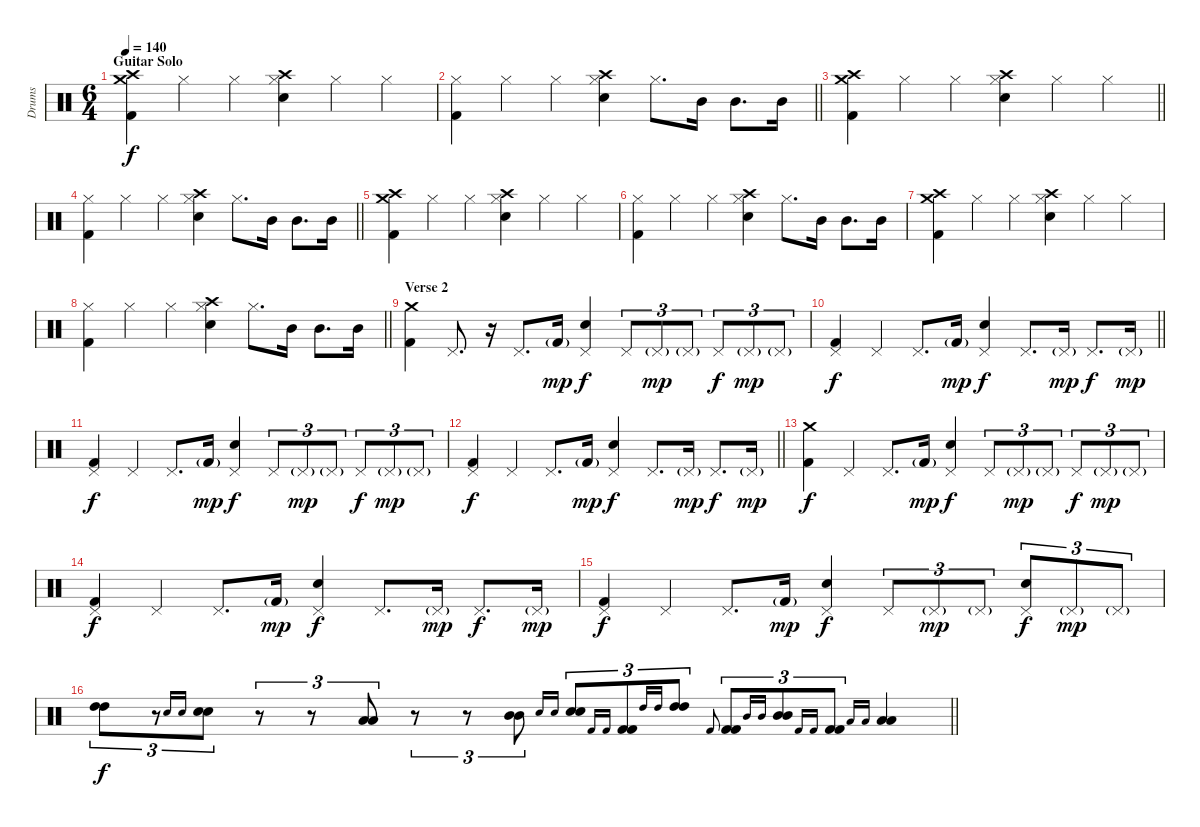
\track ("Drums" "Drums") {instrument percussion}
\staff {score}
\articulation defaults
\ts (6 4)
\section ("" "Guitar Solo")
\tempo 140
\clef neutral
\ks c
("Crash medium (hit)" "Crash high (hit)" "Kick (hit) 2").4{dy f} "Hi-Hat (closed)".4 "Hi-Hat (closed)".4 ("Hi-Hat (closed)" "Crash high (hit)" "Electric Snare (hit)").4 "Hi-Hat (closed)".4 "Hi-Hat (closed)".4 |
\barLineRight lightlight
("Hi-Hat (closed)" "Kick (hit) 2").4 "Hi-Hat (closed)".4 "Hi-Hat (closed)".4 ("Hi-Hat (closed)" "Crash high (hit)" "Electric Snare (hit)").4 "Hi-Hat (closed)".8{d} "Mid Tom (hit)".16 "Mid Tom (hit)".8{d} "Mid Tom (hit)".16 |
\barLineRight lightlight
("Crash medium (hit)" "Crash high (hit)" "Kick (hit) 2").4 "Hi-Hat (closed)".4 "Hi-Hat (closed)".4 ("Hi-Hat (closed)" "Crash high (hit)" "Electric Snare (hit)").4 "Hi-Hat (closed)".4 "Hi-Hat (closed)".4 |
\barLineRight lightlight
("Hi-Hat (closed)" "Kick (hit) 2").4 "Hi-Hat (closed)".4 "Hi-Hat (closed)".4 ("Hi-Hat (closed)" "Crash high (hit)" "Electric Snare (hit)").4 "Hi-Hat (closed)".8{d} "Mid Tom (hit)".16 "Mid Tom (hit)".8{d} "Mid Tom (hit)".16 |
("Crash medium (hit)" "Crash high (hit)" "Kick (hit) 2").4 "Hi-Hat (closed)".4 "Hi-Hat (closed)".4 ("Hi-Hat (closed)" "Crash high (hit)" "Electric Snare (hit)").4 "Hi-Hat (closed)".4 "Hi-Hat (closed)".4 |
("Hi-Hat (closed)" "Kick (hit) 2").4 "Hi-Hat (closed)".4 "Hi-Hat (closed)".4 ("Hi-Hat (closed)" "Crash high (hit)" "Electric Snare (hit)").4 "Hi-Hat (closed)".8{d} "Mid Tom (hit)".16 "Mid Tom (hit)".8{d} "Mid Tom (hit)".16 |
("Crash medium (hit)" "Crash high (hit)" "Kick (hit) 2").4 "Hi-Hat (closed)".4 "Hi-Hat (closed)".4 ("Hi-Hat (closed)" "Crash high (hit)" "Electric Snare (hit)").4 "Hi-Hat (closed)".4 "Hi-Hat (closed)".4 |
\barLineRight lightlight
("Hi-Hat (closed)" "Kick (hit) 2").4 "Hi-Hat (closed)".4 "Hi-Hat (closed)".4 ("Hi-Hat (closed)" "Crash high (hit)" "Electric Snare (hit)").4 "Hi-Hat (closed)".8{d} "Mid Tom (hit)".16 "Mid Tom (hit)".8{d} "Mid Tom (hit)".16 |
\section ("" "Verse 2")
("Crash medium (hit)" "Kick (hit) 2").4{volume 8} "Pedal Hi-Hat (hit)".8{d} r.16 "Pedal Hi-Hat (hit)".8{d} "Kick (hit) 2"{g}.16{dy mp} ("Pedal Hi-Hat (hit)" "Electric Snare (hit)").4{dy f} "Pedal Hi-Hat (hit)".8{tu (3 2)} "Pedal Hi-Hat (hit)"{g}.8{tu (3 2) dy mp} "Pedal Hi-Hat (hit)"{g}.8{tu (3 2)} "Pedal Hi-Hat (hit)".8{tu (3 2) dy f} "Pedal Hi-Hat (hit)"{g}.8{tu (3 2) dy mp} "Pedal Hi-Hat (hit)"{g}.8{tu (3 2)} |
\barLineRight lightlight
("Pedal Hi-Hat (hit)" "Kick (hit) 2").4{dy f} "Pedal Hi-Hat (hit)".4 "Pedal Hi-Hat (hit)".8{d} "Kick (hit) 2"{g}.16{dy mp} ("Pedal Hi-Hat (hit)" "Electric Snare (hit)").4{dy f} "Pedal Hi-Hat (hit)".8{d} "Pedal Hi-Hat (hit)"{g}.16{dy mp} "Pedal Hi-Hat (hit)".8{d dy f} "Pedal Hi-Hat (hit)"{g}.16{dy mp} |
("Pedal Hi-Hat (hit)" "Kick (hit) 2").4{dy f} "Pedal Hi-Hat (hit)".4 "Pedal Hi-Hat (hit)".8{d} "Kick (hit) 2"{g}.16{dy mp} ("Pedal Hi-Hat (hit)" "Electric Snare (hit)").4{dy f} "Pedal Hi-Hat (hit)".8{tu (3 2)} "Pedal Hi-Hat (hit)"{g}.8{tu (3 2) dy mp} "Pedal Hi-Hat (hit)"{g}.8{tu (3 2)} "Pedal Hi-Hat (hit)".8{tu (3 2) dy f} "Pedal Hi-Hat (hit)"{g}.8{tu (3 2) dy mp} "Pedal Hi-Hat (hit)"{g}.8{tu (3 2)} |
\barLineRight lightlight
("Pedal Hi-Hat (hit)" "Kick (hit) 2").4{dy f} "Pedal Hi-Hat (hit)".4 "Pedal Hi-Hat (hit)".8{d} "Kick (hit) 2"{g}.16{dy mp} ("Pedal Hi-Hat (hit)" "Electric Snare (hit)").4{dy f} "Pedal Hi-Hat (hit)".8{d} "Pedal Hi-Hat (hit)"{g}.16{dy mp} "Pedal Hi-Hat (hit)".8{d dy f} "Pedal Hi-Hat (hit)"{g}.16{dy mp} |
("Crash medium (hit)" "Kick (hit) 2").4{dy f} "Pedal Hi-Hat (hit)".4 "Pedal Hi-Hat (hit)".8{d} "Kick (hit) 2"{g}.16{dy mp} ("Pedal Hi-Hat (hit)" "Electric Snare (hit)").4{dy f} "Pedal Hi-Hat (hit)".8{tu (3 2)} "Pedal Hi-Hat (hit)"{g}.8{tu (3 2) dy mp} "Pedal Hi-Hat (hit)"{g}.8{tu (3 2)} "Pedal Hi-Hat (hit)".8{tu (3 2) dy f} "Pedal Hi-Hat (hit)"{g}.8{tu (3 2) dy mp} "Pedal Hi-Hat (hit)"{g}.8{tu (3 2)} |
("Pedal Hi-Hat (hit)" "Kick (hit) 2").4{dy f} "Pedal Hi-Hat (hit)".4 "Pedal Hi-Hat (hit)".8{d} "Kick (hit) 2"{g}.16{dy mp} ("Pedal Hi-Hat (hit)" "Electric Snare (hit)").4{dy f} "Pedal Hi-Hat (hit)".8{d} "Pedal Hi-Hat (hit)"{g}.16{dy mp} "Pedal Hi-Hat (hit)".8{d dy f} "Pedal Hi-Hat (hit)"{g}.16{dy mp} |
("Pedal Hi-Hat (hit)" "Kick (hit) 2").4{dy f} "Pedal Hi-Hat (hit)".4 "Pedal Hi-Hat (hit)".8{d} "Kick (hit) 2"{g}.16{dy mp} ("Pedal Hi-Hat (hit)" "Electric Snare (hit)").4{dy f} "Pedal Hi-Hat (hit)".8{tu (3 2)} "Pedal Hi-Hat (hit)"{g}.8{tu (3 2) dy mp} "Pedal Hi-Hat (hit)"{g}.8{tu (3 2)} ("Pedal Hi-Hat (hit)" "Electric Snare (hit)").8{tu (3 2) dy f} "Pedal Hi-Hat (hit)"{g}.8{tu (3 2) dy mp} "Pedal Hi-Hat (hit)"{g}.8{tu (3 2)} |
\barLineRight lightlight
("High Tom (hit)" "High Tom (hit)").8{tu (3 2) dy f volume 10} r.8{tu (3 2)} "Electric Snare (hit)".16{gr onbeat} "Electric Snare (hit)".16{gr onbeat} ("Electric Snare (hit)" "Electric Snare (hit)").8{tu (3 2)} r.8{tu (3 2)} r.8{tu (3 2)} ("Low Tom (hit)" "Low Tom (hit)").8{tu (3 2)} r.8{tu (3 2)} r.8{tu (3 2)} ("Mid Tom (hit)" "Mid Tom (hit)").8{tu (3 2)} "Electric Snare (hit)".16{gr onbeat} "Electric Snare (hit)".16{gr onbeat} ("Electric Snare (hit)" "Electric Snare (hit)").8{tu (3 2)} "Kick (hit) 2".16{gr onbeat} "Kick (hit) 2".16{gr onbeat} ("Kick (hit) 2" "Kick (hit) 2").8{tu (3 2)} "High Tom (hit)".16{gr onbeat} "High Tom (hit)".16{gr onbeat} ("High Tom (hit)" "High Tom (hit)").8{tu (3 2)} "Kick (hit) 2".8{gr onbeat} ("Kick (hit) 2" "Kick (hit) 2").8{tu (3 2)} "Mid Tom (hit)".16{gr onbeat} "Mid Tom (hit)".16{gr onbeat} ("Mid Tom (hit)" "Mid Tom (hit)").8{tu (3 2)} "Kick (hit) 2".16{gr onbeat} "Kick (hit) 2".16{gr onbeat} ("Kick (hit) 2" "Kick (hit) 2").8{tu (3 2)} "Low Tom (hit)".16{gr onbeat} "Low Tom (hit)".16{gr onbeat} ("Low Tom (hit)" "Low Tom (hit)").4
